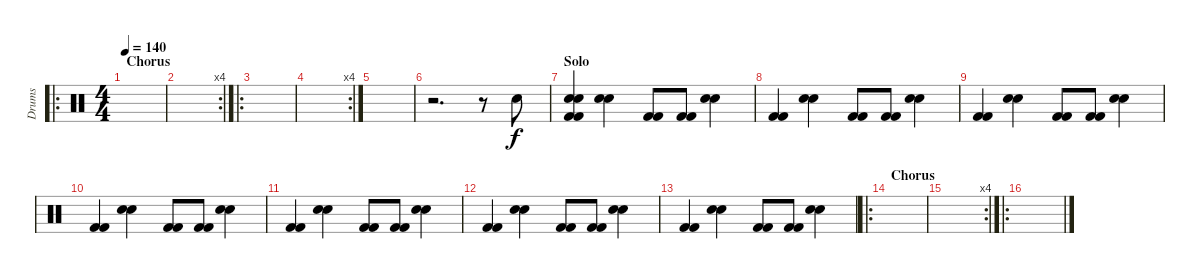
\track ("Drums" "Drums") {instrument percussion}
\staff {score}
\articulation defaults
\ro
\ts (4 4)
\section ("" "Chorus")
\tempo 140
\clef neutral
\ks c
|
\rc 4
|
\ro
|
\rc 4
|
|
r.2{d} r.8 "Snare (hit) 2".8 |
\section ("" "Solo")
("Snare (hit) 2" "Snare (hit) 2" "Kick (hit) 2" "Kick (hit) 2").4 ("Snare (hit) 2" "Snare (hit) 2").4 ("Kick (hit) 2" "Kick (hit) 2").8 ("Kick (hit) 2" "Kick (hit) 2").8 ("Snare (hit) 2" "Snare (hit) 2").4 |
("Kick (hit) 2" "Kick (hit) 2").4 ("Snare (hit) 2" "Snare (hit) 2").4 ("Kick (hit) 2" "Kick (hit) 2").8 ("Kick (hit) 2" "Kick (hit) 2").8 ("Snare (hit) 2" "Snare (hit) 2").4 |
("Kick (hit) 2" "Kick (hit) 2").4 ("Snare (hit) 2" "Snare (hit) 2").4 ("Kick (hit) 2" "Kick (hit) 2").8 ("Kick (hit) 2" "Kick (hit) 2").8 ("Snare (hit) 2" "Snare (hit) 2").4 |
("Kick (hit) 2" "Kick (hit) 2").4 ("Snare (hit) 2" "Snare (hit) 2").4 ("Kick (hit) 2" "Kick (hit) 2").8 ("Kick (hit) 2" "Kick (hit) 2").8 ("Snare (hit) 2" "Snare (hit) 2").4 |
("Kick (hit) 2" "Kick (hit) 2").4 ("Snare (hit) 2" "Snare (hit) 2").4 ("Kick (hit) 2" "Kick (hit) 2").8 ("Kick (hit) 2" "Kick (hit) 2").8 ("Snare (hit) 2" "Snare (hit) 2").4 |
("Kick (hit) 2" "Kick (hit) 2").4 ("Snare (hit) 2" "Snare (hit) 2").4 ("Kick (hit) 2" "Kick (hit) 2").8 ("Kick (hit) 2" "Kick (hit) 2").8 ("Snare (hit) 2" "Snare (hit) 2").4 |
("Kick (hit) 2" "Kick (hit) 2").4 ("Snare (hit) 2" "Snare (hit) 2").4 ("Kick (hit) 2" "Kick (hit) 2").8 ("Kick (hit) 2" "Kick (hit) 2").8 ("Snare (hit) 2" "Snare (hit) 2").4 |
\ro
\section ("" "Chorus")
|
\rc 4
|
\ro
